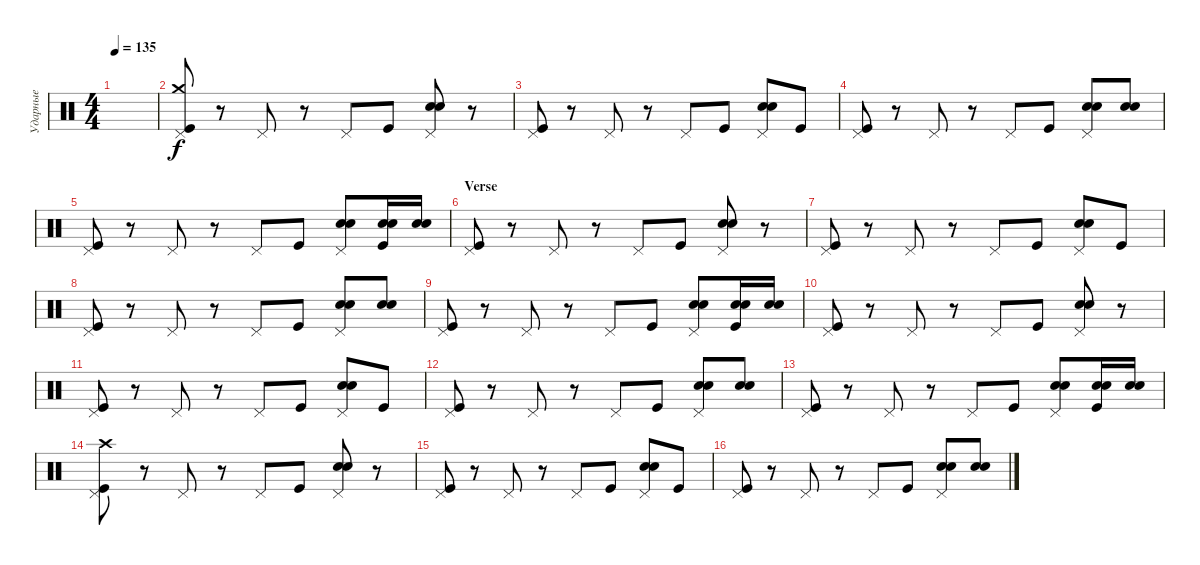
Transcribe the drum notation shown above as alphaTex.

\track ("Ударные" "Ударные") {instrument percussion}
\staff {score}
\articulation defaults
\ts (4 4)
\tempo 135
\clef neutral
\ks c
|
("Pedal Hi-Hat (hit)" "Crash medium (hit)" "Kick (hit)").8 r.8 "Pedal Hi-Hat (hit)".8 r.8 "Pedal Hi-Hat (hit)".8 "Kick (hit)".8 ("Pedal Hi-Hat (hit)" "Electric Snare (hit)" "Electric Snare (hit)").8 r.8 |
("Pedal Hi-Hat (hit)" "Kick (hit)").8 r.8 "Pedal Hi-Hat (hit)".8 r.8 "Pedal Hi-Hat (hit)".8 "Kick (hit)".8 ("Pedal Hi-Hat (hit)" "Electric Snare (hit)" "Electric Snare (hit)").8 "Kick (hit)".8 |
("Pedal Hi-Hat (hit)" "Kick (hit)").8 r.8 "Pedal Hi-Hat (hit)".8 r.8 "Pedal Hi-Hat (hit)".8 "Kick (hit)".8 ("Pedal Hi-Hat (hit)" "Electric Snare (hit)" "Electric Snare (hit)").8 ("Electric Snare (hit)" "Electric Snare (hit)").8 |
("Pedal Hi-Hat (hit)" "Kick (hit)").8 r.8 "Pedal Hi-Hat (hit)".8 r.8 "Pedal Hi-Hat (hit)".8 "Kick (hit)".8 ("Pedal Hi-Hat (hit)" "Electric Snare (hit)" "Electric Snare (hit)").8 ("Electric Snare (hit)" "Electric Snare (hit)" "Kick (hit)").16 ("Electric Snare (hit)" "Electric Snare (hit)").16 |
\section ("" "Verse")
("Pedal Hi-Hat (hit)" "Kick (hit)").8 r.8 "Pedal Hi-Hat (hit)".8 r.8 "Pedal Hi-Hat (hit)".8 "Kick (hit)".8 ("Pedal Hi-Hat (hit)" "Electric Snare (hit)" "Electric Snare (hit)").8 r.8 |
("Pedal Hi-Hat (hit)" "Kick (hit)").8 r.8 "Pedal Hi-Hat (hit)".8 r.8 "Pedal Hi-Hat (hit)".8 "Kick (hit)".8 ("Pedal Hi-Hat (hit)" "Electric Snare (hit)" "Electric Snare (hit)").8 "Kick (hit)".8 |
("Pedal Hi-Hat (hit)" "Kick (hit)").8 r.8 "Pedal Hi-Hat (hit)".8 r.8 "Pedal Hi-Hat (hit)".8 "Kick (hit)".8 ("Pedal Hi-Hat (hit)" "Electric Snare (hit)" "Electric Snare (hit)").8 ("Electric Snare (hit)" "Electric Snare (hit)").8 |
("Pedal Hi-Hat (hit)" "Kick (hit)").8 r.8 "Pedal Hi-Hat (hit)".8 r.8 "Pedal Hi-Hat (hit)".8 "Kick (hit)".8 ("Pedal Hi-Hat (hit)" "Electric Snare (hit)" "Electric Snare (hit)").8 ("Electric Snare (hit)" "Electric Snare (hit)" "Kick (hit)").16 ("Electric Snare (hit)" "Electric Snare (hit)").16 |
("Pedal Hi-Hat (hit)" "Kick (hit)").8 r.8 "Pedal Hi-Hat (hit)".8 r.8 "Pedal Hi-Hat (hit)".8 "Kick (hit)".8 ("Pedal Hi-Hat (hit)" "Electric Snare (hit)" "Electric Snare (hit)").8 r.8 |
("Pedal Hi-Hat (hit)" "Kick (hit)").8 r.8 "Pedal Hi-Hat (hit)".8 r.8 "Pedal Hi-Hat (hit)".8 "Kick (hit)".8 ("Pedal Hi-Hat (hit)" "Electric Snare (hit)" "Electric Snare (hit)").8 "Kick (hit)".8 |
("Pedal Hi-Hat (hit)" "Kick (hit)").8 r.8 "Pedal Hi-Hat (hit)".8 r.8 "Pedal Hi-Hat (hit)".8 "Kick (hit)".8 ("Pedal Hi-Hat (hit)" "Electric Snare (hit)" "Electric Snare (hit)").8 ("Electric Snare (hit)" "Electric Snare (hit)").8 |
("Pedal Hi-Hat (hit)" "Kick (hit)").8 r.8 "Pedal Hi-Hat (hit)".8 r.8 "Pedal Hi-Hat (hit)".8 "Kick (hit)".8 ("Pedal Hi-Hat (hit)" "Electric Snare (hit)" "Electric Snare (hit)").8 ("Electric Snare (hit)" "Electric Snare (hit)" "Kick (hit)").16 ("Electric Snare (hit)" "Electric Snare (hit)").16 |
("Pedal Hi-Hat (hit)" "Crash high (hit)" "Kick (hit)").8 r.8 "Pedal Hi-Hat (hit)".8 r.8 "Pedal Hi-Hat (hit)".8 "Kick (hit)".8 ("Pedal Hi-Hat (hit)" "Electric Snare (hit)" "Electric Snare (hit)").8 r.8 |
("Pedal Hi-Hat (hit)" "Kick (hit)").8 r.8 "Pedal Hi-Hat (hit)".8 r.8 "Pedal Hi-Hat (hit)".8 "Kick (hit)".8 ("Pedal Hi-Hat (hit)" "Electric Snare (hit)" "Electric Snare (hit)").8 "Kick (hit)".8 |
("Pedal Hi-Hat (hit)" "Kick (hit)").8 r.8 "Pedal Hi-Hat (hit)".8 r.8 "Pedal Hi-Hat (hit)".8 "Kick (hit)".8 ("Pedal Hi-Hat (hit)" "Electric Snare (hit)" "Electric Snare (hit)").8 ("Electric Snare (hit)" "Electric Snare (hit)").8
